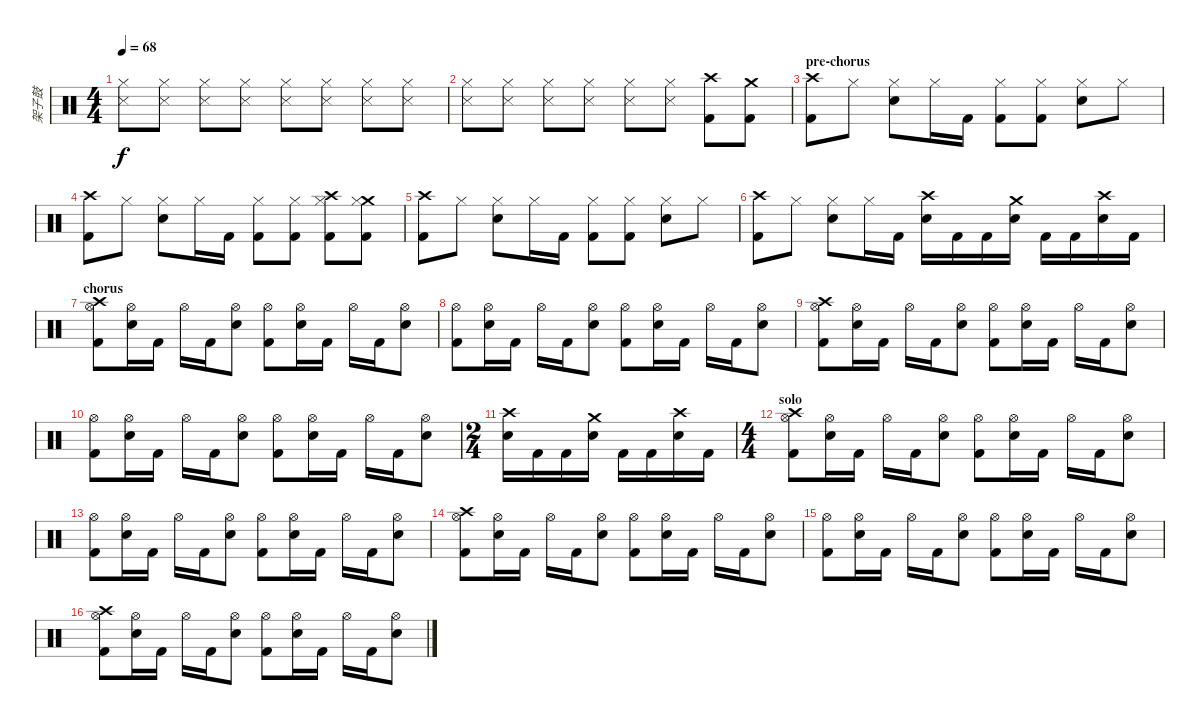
\track ("架子鼓" "架子鼓") {instrument percussion}
\staff {score}
\articulation defaults
\ts (4 4)
\tempo 68
\clef neutral
\ks c
("Snare (side stick) 3" "Hi-Hat (closed)").8{dy f} ("Snare (side stick) 3" "Hi-Hat (closed)").8 ("Snare (side stick) 3" "Hi-Hat (closed)").8 ("Snare (side stick) 3" "Hi-Hat (closed)").8 ("Snare (side stick) 3" "Hi-Hat (closed)").8 ("Snare (side stick) 3" "Hi-Hat (closed)").8 ("Snare (side stick) 3" "Hi-Hat (closed)").8 ("Snare (side stick) 3" "Hi-Hat (closed)").8 |
("Snare (side stick) 3" "Hi-Hat (closed)").8 ("Snare (side stick) 3" "Hi-Hat (closed)").8 ("Snare (side stick) 3" "Hi-Hat (closed)").8 ("Snare (side stick) 3" "Hi-Hat (closed)").8 ("Snare (side stick) 3" "Hi-Hat (closed)").8 ("Snare (side stick) 3" "Hi-Hat (closed)").8 ("Crash high (hit)" "Kick (hit) 2").8 ("Crash medium (hit)" "Kick (hit) 2").8 |
\section ("" "pre-chorus")
("Crash high (hit)" "Kick (hit) 2").8 "Hi-Hat (closed)".8 ("Hi-Hat (closed)" "Snare (hit) 2").8 "Hi-Hat (closed)".16 "Kick (hit) 2".16 ("Hi-Hat (closed)" "Kick (hit) 2").8 ("Hi-Hat (closed)" "Kick (hit) 2").8 ("Hi-Hat (closed)" "Snare (hit) 2").8 "Hi-Hat (closed)".8 |
("Crash high (hit)" "Kick (hit) 2").8 "Hi-Hat (closed)".8 ("Hi-Hat (closed)" "Snare (hit) 2").8 "Hi-Hat (closed)".16 "Kick (hit) 2".16 ("Hi-Hat (closed)" "Kick (hit) 2").8 ("Hi-Hat (closed)" "Kick (hit) 2").8 ("Crash high (hit)" "Hi-Hat (closed)" "Kick (hit) 2").8 ("Crash medium (hit)" "Hi-Hat (closed)" "Kick (hit) 2").8 |
("Crash high (hit)" "Kick (hit) 2").8 "Hi-Hat (closed)".8 ("Hi-Hat (closed)" "Snare (hit) 2").8 "Hi-Hat (closed)".16 "Kick (hit) 2".16 ("Hi-Hat (closed)" "Kick (hit) 2").8 ("Hi-Hat (closed)" "Kick (hit) 2").8 ("Hi-Hat (closed)" "Snare (hit) 2").8 "Hi-Hat (closed)".8 |
("Crash high (hit)" "Kick (hit) 2").8 "Hi-Hat (closed)".8 ("Hi-Hat (closed)" "Snare (hit) 2").8 "Hi-Hat (closed)".16 "Kick (hit) 2".16 ("Crash high (hit)" "Snare (hit) 2").16 "Kick (hit) 2".16 "Kick (hit) 2".16 ("Crash medium (hit)" "Snare (hit) 2").16 "Kick (hit) 2".16 "Kick (hit) 2".16 ("Crash high (hit)" "Snare (hit) 2").16 "Kick (hit) 2".16 |
\section ("" "chorus")
("Crash high (hit)" "Hi-Hat (open)" "Kick (hit) 2").8 ("Hi-Hat (open)" "Snare (hit) 2").16 "Kick (hit) 2".16 "Hi-Hat (open)".16 "Kick (hit) 2".16 ("Hi-Hat (open)" "Snare (hit) 2").8 ("Hi-Hat (open)" "Kick (hit) 2").8 ("Hi-Hat (open)" "Snare (hit) 2").16 "Kick (hit) 2".16 "Hi-Hat (open)".16 "Kick (hit) 2".16 ("Hi-Hat (open)" "Snare (hit) 2").8 |
("Hi-Hat (open)" "Kick (hit) 2").8 ("Hi-Hat (open)" "Snare (hit) 2").16 "Kick (hit) 2".16 "Hi-Hat (open)".16 "Kick (hit) 2".16 ("Hi-Hat (open)" "Snare (hit) 2").8 ("Hi-Hat (open)" "Kick (hit) 2").8 ("Hi-Hat (open)" "Snare (hit) 2").16 "Kick (hit) 2".16 "Hi-Hat (open)".16 "Kick (hit) 2".16 ("Hi-Hat (open)" "Snare (hit) 2").8 |
("Crash high (hit)" "Hi-Hat (open)" "Kick (hit) 2").8 ("Hi-Hat (open)" "Snare (hit) 2").16 "Kick (hit) 2".16 "Hi-Hat (open)".16 "Kick (hit) 2".16 ("Hi-Hat (open)" "Snare (hit) 2").8 ("Hi-Hat (open)" "Kick (hit) 2").8 ("Hi-Hat (open)" "Snare (hit) 2").16 "Kick (hit) 2".16 "Hi-Hat (open)".16 "Kick (hit) 2".16 ("Hi-Hat (open)" "Snare (hit) 2").8 |
("Hi-Hat (open)" "Kick (hit) 2").8 ("Hi-Hat (open)" "Snare (hit) 2").16 "Kick (hit) 2".16 "Hi-Hat (open)".16 "Kick (hit) 2".16 ("Hi-Hat (open)" "Snare (hit) 2").8 ("Hi-Hat (open)" "Kick (hit) 2").8 ("Hi-Hat (open)" "Snare (hit) 2").16 "Kick (hit) 2".16 "Hi-Hat (open)".16 "Kick (hit) 2".16 ("Hi-Hat (open)" "Snare (hit) 2").8 |
\ts (2 4)
("Crash high (hit)" "Snare (hit) 2").16 "Kick (hit) 2".16 "Kick (hit) 2".16 ("Crash medium (hit)" "Snare (hit) 2").16 "Kick (hit) 2".16 "Kick (hit) 2".16 ("Crash high (hit)" "Snare (hit) 2").16 "Kick (hit) 2".16 |
\ts (4 4)
\section ("" "solo")
("Crash high (hit)" "Hi-Hat (open)" "Kick (hit) 2").8 ("Hi-Hat (open)" "Snare (hit) 2").16 "Kick (hit) 2".16 "Hi-Hat (open)".16 "Kick (hit) 2".16 ("Hi-Hat (open)" "Snare (hit) 2").8 ("Hi-Hat (open)" "Kick (hit) 2").8 ("Hi-Hat (open)" "Snare (hit) 2").16 "Kick (hit) 2".16 "Hi-Hat (open)".16 "Kick (hit) 2".16 ("Hi-Hat (open)" "Snare (hit) 2").8 |
("Hi-Hat (open)" "Kick (hit) 2").8 ("Hi-Hat (open)" "Snare (hit) 2").16 "Kick (hit) 2".16 "Hi-Hat (open)".16 "Kick (hit) 2".16 ("Hi-Hat (open)" "Snare (hit) 2").8 ("Hi-Hat (open)" "Kick (hit) 2").8 ("Hi-Hat (open)" "Snare (hit) 2").16 "Kick (hit) 2".16 "Hi-Hat (open)".16 "Kick (hit) 2".16 ("Hi-Hat (open)" "Snare (hit) 2").8 |
("Crash high (hit)" "Hi-Hat (open)" "Kick (hit) 2").8 ("Hi-Hat (open)" "Snare (hit) 2").16 "Kick (hit) 2".16 "Hi-Hat (open)".16 "Kick (hit) 2".16 ("Hi-Hat (open)" "Snare (hit) 2").8 ("Hi-Hat (open)" "Kick (hit) 2").8 ("Hi-Hat (open)" "Snare (hit) 2").16 "Kick (hit) 2".16 "Hi-Hat (open)".16 "Kick (hit) 2".16 ("Hi-Hat (open)" "Snare (hit) 2").8 |
("Hi-Hat (open)" "Kick (hit) 2").8 ("Hi-Hat (open)" "Snare (hit) 2").16 "Kick (hit) 2".16 "Hi-Hat (open)".16 "Kick (hit) 2".16 ("Hi-Hat (open)" "Snare (hit) 2").8 ("Hi-Hat (open)" "Kick (hit) 2").8 ("Hi-Hat (open)" "Snare (hit) 2").16 "Kick (hit) 2".16 "Hi-Hat (open)".16 "Kick (hit) 2".16 ("Hi-Hat (open)" "Snare (hit) 2").8 |
("Crash high (hit)" "Hi-Hat (open)" "Kick (hit) 2").8 ("Hi-Hat (open)" "Snare (hit) 2").16 "Kick (hit) 2".16 "Hi-Hat (open)".16 "Kick (hit) 2".16 ("Hi-Hat (open)" "Snare (hit) 2").8 ("Hi-Hat (open)" "Kick (hit) 2").8 ("Hi-Hat (open)" "Snare (hit) 2").16 "Kick (hit) 2".16 "Hi-Hat (open)".16 "Kick (hit) 2".16 ("Hi-Hat (open)" "Snare (hit) 2").8
